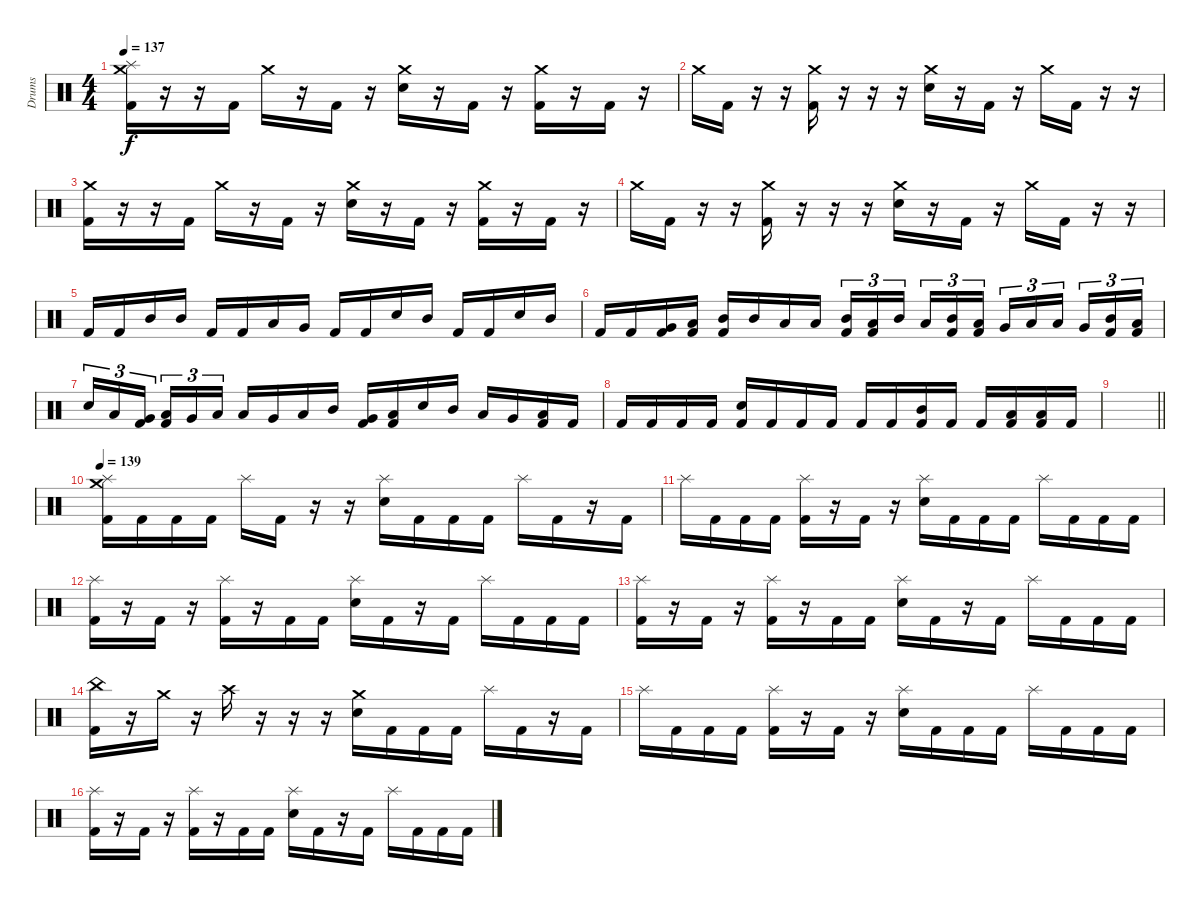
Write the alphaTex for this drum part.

\track ("Drums" "Drums") {instrument percussion}
\staff {score}
\articulation defaults
\ts (4 4)
\section ("" "")
\tempo 137
\clef neutral
\ks c
("Splash (hit)" "Crash medium (hit)" "Kick (hit) 2").16{dy f} r.16 r.16 "Kick (hit) 2".16 "Crash medium (hit)".16 r.16 "Kick (hit) 2".16 r.16 ("Crash medium (hit)" "Electric Snare (hit)").16 r.16 "Kick (hit) 2".16 r.16 ("Crash medium (hit)" "Kick (hit) 2").16 r.16 "Kick (hit) 2".16 r.16 |
"Crash medium (hit)".16 "Kick (hit) 2".16 r.16 r.16 ("Crash medium (hit)" "Kick (hit) 2").16 r.16 r.16 r.16 ("Crash medium (hit)" "Electric Snare (hit)").16 r.16 "Kick (hit) 2".16 r.16 "Crash medium (hit)".16 "Kick (hit) 2".16 r.16 r.16 |
("Crash medium (hit)" "Kick (hit) 2").16 r.16 r.16 "Kick (hit) 2".16 "Crash medium (hit)".16 r.16 "Kick (hit) 2".16 r.16 ("Crash medium (hit)" "Electric Snare (hit)").16 r.16 "Kick (hit) 2".16 r.16 ("Crash medium (hit)" "Kick (hit) 2").16 r.16 "Kick (hit) 2".16 r.16 |
"Crash medium (hit)".16 "Kick (hit) 2".16 r.16 r.16 ("Crash medium (hit)" "Kick (hit) 2").16 r.16 r.16 r.16 ("Crash medium (hit)" "Electric Snare (hit)").16 r.16 "Kick (hit) 2".16 r.16 "Crash medium (hit)".16 "Kick (hit) 2".16 r.16 r.16 |
"Kick (hit) 2".16 "Kick (hit) 2".16 "Mid Tom (hit)".16 "Mid Tom (hit)".16 "Kick (hit) 2".16 "Kick (hit) 2".16 "Low Tom (hit)".16 "Very Low Tom (hit)".16 "Kick (hit) 2".16 "Kick (hit) 2".16 "Electric Snare (hit)".16 "Mid Tom (hit)".16 "Kick (hit) 2".16 "Kick (hit) 2".16 "Electric Snare (hit)".16 "Mid Tom (hit)".16 |
"Kick (hit) 2".16 "Kick (hit) 2".16 ("Very Low Tom (hit)" "Kick (hit) 2").16 ("Low Tom (hit)" "Kick (hit) 2").16 ("Mid Tom (hit)" "Kick (hit) 2").16 "Mid Tom (hit)".16 "Low Tom (hit)".16 "Low Tom (hit)".16 ("Mid Tom (hit)" "Kick (hit) 2").16{tu (3 2)} ("Low Tom (hit)" "Kick (hit) 2").16{tu (3 2)} "Mid Tom (hit)".16{tu (3 2) beam splitsecondary} "Low Tom (hit)".16{tu (3 2)} ("Mid Tom (hit)" "Kick (hit) 2").16{tu (3 2)} ("Low Tom (hit)" "Kick (hit) 2").16{tu (3 2)} "Very Low Tom (hit)".16{tu (3 2)} "Low Tom (hit)".16{tu (3 2)} "Low Floor Tom (hit)".16{tu (3 2) beam splitsecondary} "Very Low Tom (hit)".16{tu (3 2)} ("Mid Tom (hit)" "Kick (hit) 2").16{tu (3 2)} ("Low Tom (hit)" "Kick (hit) 2").16{tu (3 2)} |
"Electric Snare (hit)".16{tu (3 2)} "Low Tom (hit)".16{tu (3 2)} ("Very Low Tom (hit)" "Kick (hit) 2").16{tu (3 2) beam splitsecondary} ("Low Floor Tom (hit)" "Kick (hit) 2").16{tu (3 2)} "Very Low Tom (hit)".16{tu (3 2)} "Low Floor Tom (hit)".16{tu (3 2)} "Low Tom (hit)".16 "Very Low Tom (hit)".16 "Low Tom (hit)".16 "Mid Tom (hit)".16 ("Very Low Tom (hit)" "Kick (hit) 2").16 ("Low Floor Tom (hit)" "Kick (hit) 2").16 "Electric Snare (hit)".16 "Mid Tom (hit)".16 "Low Tom (hit)".16 "Very Low Tom (hit)".16 ("Low Floor Tom (hit)" "Kick (hit) 2").16 "Kick (hit) 2".16 |
"Kick (hit) 2".16 "Kick (hit) 2".16 "Kick (hit) 2".16 "Kick (hit) 2".16 ("Electric Snare (hit)" "Kick (hit) 2").16 "Kick (hit) 2".16 "Kick (hit) 2".16 "Kick (hit) 2".16 "Kick (hit) 2".16 "Kick (hit) 2".16 ("Mid Tom (hit)" "Kick (hit) 2").16 "Kick (hit) 2".16 "Kick (hit) 2".16 ("Low Tom (hit)" "Kick (hit) 2").16 ("Low Tom (hit)" "Kick (hit) 2").16 "Kick (hit) 2".16 |
\barLineRight lightlight
|
\section ("" "")
\tempo 139
("Crash medium (hit)" "Splash (hit)" "Kick (hit) 2").16 "Kick (hit) 2".16 "Kick (hit) 2".16 "Kick (hit) 2".16 "Splash (hit)".16 "Kick (hit) 2".16 r.16 r.16 ("Splash (hit)" "Electric Snare (hit)").16 "Kick (hit) 2".16 "Kick (hit) 2".16 "Kick (hit) 2".16 "Splash (hit)".16 "Kick (hit) 2".16 r.16 "Kick (hit) 2".16 |
"Splash (hit)".16 "Kick (hit) 2".16 "Kick (hit) 2".16 "Kick (hit) 2".16 ("Splash (hit)" "Kick (hit) 2").16 r.16 "Kick (hit) 2".16 r.16 ("Splash (hit)" "Electric Snare (hit)").16 "Kick (hit) 2".16 "Kick (hit) 2".16 "Kick (hit) 2".16 "Splash (hit)".16 "Kick (hit) 2".16 "Kick (hit) 2".16 "Kick (hit) 2".16 |
("Splash (hit)" "Kick (hit) 2").16 r.16 "Kick (hit) 2".16 r.16 ("Splash (hit)" "Kick (hit) 2").16 r.16 "Kick (hit) 2".16 "Kick (hit) 2".16 ("Splash (hit)" "Electric Snare (hit)").16 "Kick (hit) 2".16 r.16 "Kick (hit) 2".16 "Splash (hit)".16 "Kick (hit) 2".16 "Kick (hit) 2".16 "Kick (hit) 2".16 |
("Splash (hit)" "Kick (hit) 2").16 r.16 "Kick (hit) 2".16 r.16 ("Splash (hit)" "Kick (hit) 2").16 r.16 "Kick (hit) 2".16 "Kick (hit) 2".16 ("Splash (hit)" "Electric Snare (hit)").16 "Kick (hit) 2".16 r.16 "Kick (hit) 2".16 "Splash (hit)".16 "Kick (hit) 2".16 "Kick (hit) 2".16 "Kick (hit) 2".16 |
("China (hit)" "Kick (hit) 2").16 r.16 "Crash medium (hit)".16 r.16 "Crash high (hit)".16 r.16 r.16 r.16 ("Crash medium (hit)" "Electric Snare (hit)").16 "Kick (hit) 2".16 "Kick (hit) 2".16 "Kick (hit) 2".16 "Splash (hit)".16 "Kick (hit) 2".16 r.16 "Kick (hit) 2".16 |
"Splash (hit)".16 "Kick (hit) 2".16 "Kick (hit) 2".16 "Kick (hit) 2".16 ("Splash (hit)" "Kick (hit) 2").16 r.16 "Kick (hit) 2".16 r.16 ("Splash (hit)" "Electric Snare (hit)").16 "Kick (hit) 2".16 "Kick (hit) 2".16 "Kick (hit) 2".16 "Splash (hit)".16 "Kick (hit) 2".16 "Kick (hit) 2".16 "Kick (hit) 2".16 |
("Splash (hit)" "Kick (hit) 2").16 r.16 "Kick (hit) 2".16 r.16 ("Splash (hit)" "Kick (hit) 2").16 r.16 "Kick (hit) 2".16 "Kick (hit) 2".16 ("Splash (hit)" "Electric Snare (hit)").16 "Kick (hit) 2".16 r.16 "Kick (hit) 2".16 "Splash (hit)".16 "Kick (hit) 2".16 "Kick (hit) 2".16 "Kick (hit) 2".16
